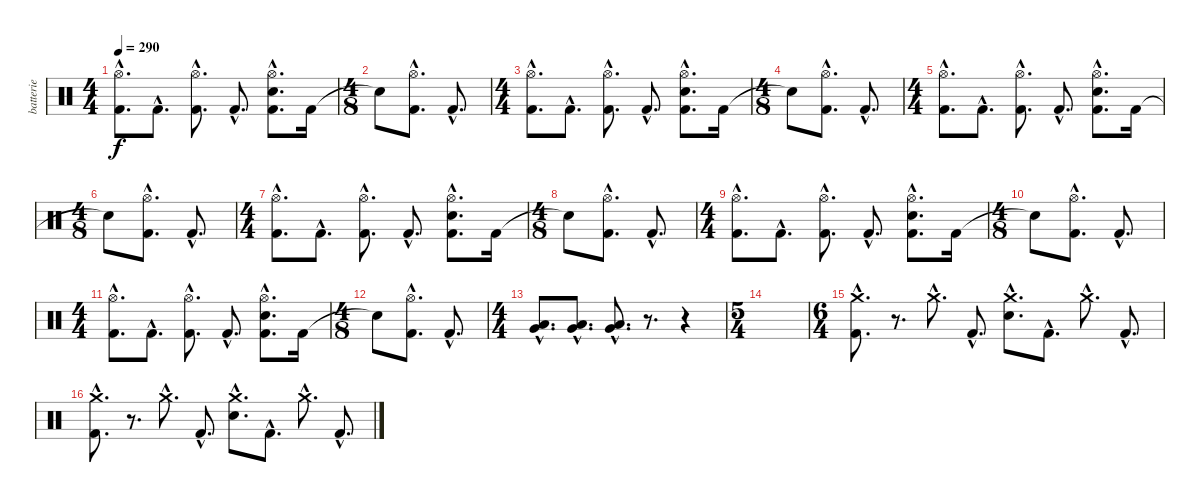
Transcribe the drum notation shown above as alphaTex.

\track ("batterie" "batterie") {instrument percussion}
\staff {score}
\articulation defaults
\ts (4 4)
\tempo 290
\clef neutral
\ks c
("Hi-Hat (open)"{hac} "Kick (hit) 2"{hac}).8{d dy f} "Kick (hit) 2"{hac}.8{d} ("Hi-Hat (open)"{hac} "Kick (hit) 2"{hac}).8{d} "Kick (hit) 2"{hac}.8{d} ("Hi-Hat (open)"{hac} "Electric Snare (hit)"{hac} "Kick (hit) 2"{hac}).8{d} "Kick (hit) 2".16 |
\ts (4 8)
"Snare (hit)"{t}.8 ("Hi-Hat (open)"{hac} "Kick (hit) 2"{hac}).8{d} "Kick (hit) 2"{hac}.8{d} |
\ts (4 4)
("Hi-Hat (open)"{hac} "Kick (hit) 2"{hac}).8{d} "Kick (hit) 2"{hac}.8{d} ("Hi-Hat (open)"{hac} "Kick (hit) 2"{hac}).8{d} "Kick (hit) 2"{hac}.8{d} ("Hi-Hat (open)"{hac} "Electric Snare (hit)"{hac} "Kick (hit) 2"{hac}).8{d} "Kick (hit) 2".16 |
\ts (4 8)
"Snare (hit)"{t}.8 ("Hi-Hat (open)"{hac} "Kick (hit) 2"{hac}).8{d} "Kick (hit) 2"{hac}.8{d} |
\ts (4 4)
("Hi-Hat (open)"{hac} "Kick (hit) 2"{hac}).8{d} "Kick (hit) 2"{hac}.8{d} ("Hi-Hat (open)"{hac} "Kick (hit) 2"{hac}).8{d} "Kick (hit) 2"{hac}.8{d} ("Hi-Hat (open)"{hac} "Electric Snare (hit)"{hac} "Kick (hit) 2"{hac}).8{d} "Kick (hit) 2".16 |
\ts (4 8)
"Snare (hit)"{t}.8 ("Hi-Hat (open)"{hac} "Kick (hit) 2"{hac}).8{d} "Kick (hit) 2"{hac}.8{d} |
\ts (4 4)
("Hi-Hat (open)"{hac} "Kick (hit) 2"{hac}).8{d} "Kick (hit) 2"{hac}.8{d} ("Hi-Hat (open)"{hac} "Kick (hit) 2"{hac}).8{d} "Kick (hit) 2"{hac}.8{d} ("Hi-Hat (open)"{hac} "Electric Snare (hit)"{hac} "Kick (hit) 2"{hac}).8{d} "Kick (hit) 2".16 |
\ts (4 8)
"Snare (hit)"{t}.8 ("Hi-Hat (open)"{hac} "Kick (hit) 2"{hac}).8{d} "Kick (hit) 2"{hac}.8{d} |
\ts (4 4)
("Hi-Hat (open)"{hac} "Kick (hit) 2"{hac}).8{d} "Kick (hit) 2"{hac}.8{d} ("Hi-Hat (open)"{hac} "Kick (hit) 2"{hac}).8{d} "Kick (hit) 2"{hac}.8{d} ("Hi-Hat (open)"{hac} "Electric Snare (hit)"{hac} "Kick (hit) 2"{hac}).8{d} "Kick (hit) 2".16 |
\ts (4 8)
"Snare (hit)"{t}.8 ("Hi-Hat (open)"{hac} "Kick (hit) 2"{hac}).8{d} "Kick (hit) 2"{hac}.8{d} |
\ts (4 4)
("Hi-Hat (open)"{hac} "Kick (hit) 2"{hac}).8{d} "Kick (hit) 2"{hac}.8{d} ("Hi-Hat (open)"{hac} "Kick (hit) 2"{hac}).8{d} "Kick (hit) 2"{hac}.8{d} ("Hi-Hat (open)"{hac} "Electric Snare (hit)"{hac} "Kick (hit) 2"{hac}).8{d} "Kick (hit) 2".16 |
\ts (4 8)
"Snare (hit)"{t}.8 ("Hi-Hat (open)"{hac} "Kick (hit) 2"{hac}).8{d} "Kick (hit) 2"{hac}.8{d} |
\ts (4 4)
("Low Tom (hit)"{hac} "Very Low Tom (hit)"{hac}).8{d} ("Low Tom (hit)"{hac} "Very Low Tom (hit)"{hac}).8{d} ("Low Tom (hit)"{hac} "Very Low Tom (hit)"{hac}).8{d} r.8{d} r.4 |
\ts (5 4)
|
\ts (6 4)
("Crash medium (hit)"{hac} "Kick (hit) 2"{hac}).8{d} r.8{d} "Crash medium (hit)"{hac}.8{d} "Kick (hit) 2"{hac}.8{d} ("Crash medium (hit)"{hac} "Electric Snare (hit)"{hac}).8{d} "Kick (hit) 2"{hac}.8{d} "Crash medium (hit)"{hac}.8{d} "Kick (hit) 2"{hac}.8{d} |
("Crash medium (hit)"{hac} "Kick (hit) 2"{hac}).8{d} r.8{d} "Crash medium (hit)"{hac}.8{d} "Kick (hit) 2"{hac}.8{d} ("Crash medium (hit)"{hac} "Electric Snare (hit)"{hac}).8{d} "Kick (hit) 2"{hac}.8{d} "Crash medium (hit)"{hac}.8{d} "Kick (hit) 2"{hac}.8{d}
